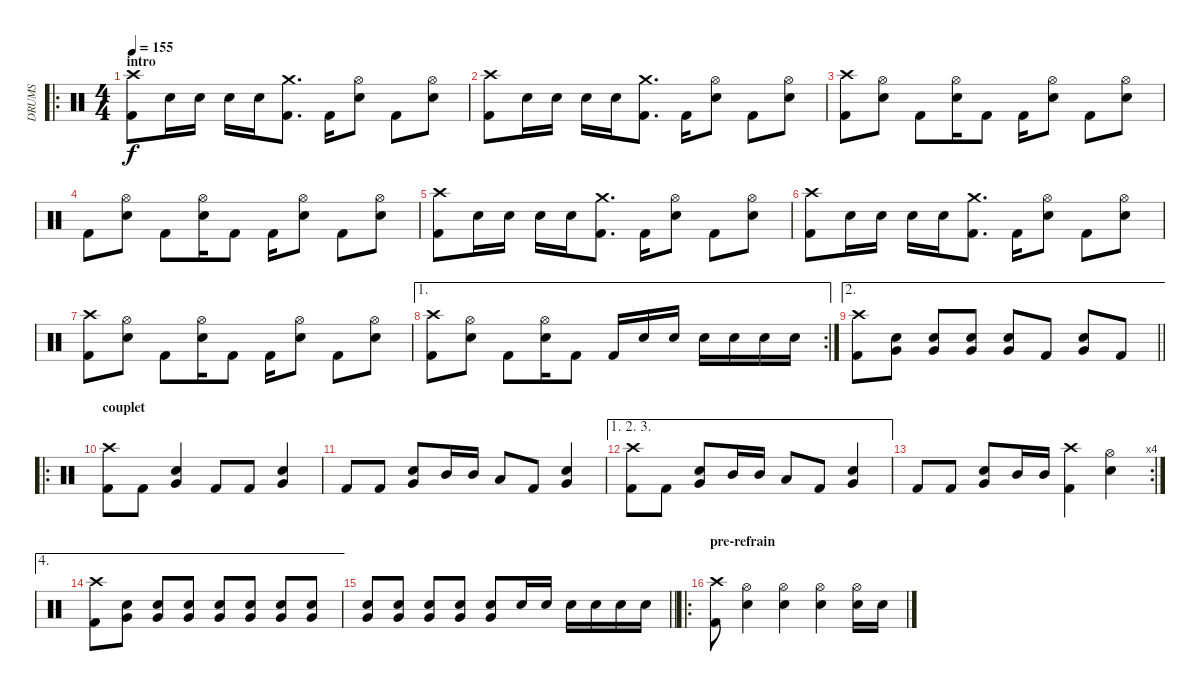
\track ("DRUMS" "DRUMS") {instrument percussion}
\staff {score}
\articulation defaults
\ro
\ts (4 4)
\section ("" "intro")
\tempo 155
\clef neutral
\ks c
("Crash high (hit)" "Kick (hit) 2").8{dy f} "Electric Snare (hit)".16 "Electric Snare (hit)".16 "Electric Snare (hit)".16 "Electric Snare (hit)".16 ("Crash medium (hit)" "Kick (hit) 2").8{d} "Kick (hit) 2".16 ("Hi-Hat (open)" "Electric Snare (hit)").8 "Kick (hit) 2".8 ("Hi-Hat (open)" "Electric Snare (hit)").8 |
("Crash high (hit)" "Kick (hit) 2").8 "Electric Snare (hit)".16 "Electric Snare (hit)".16 "Electric Snare (hit)".16 "Electric Snare (hit)".16 ("Crash medium (hit)" "Kick (hit) 2").8{d} "Kick (hit) 2".16 ("Hi-Hat (open)" "Electric Snare (hit)").8 "Kick (hit) 2".8 ("Hi-Hat (open)" "Electric Snare (hit)").8 |
("Crash high (hit)" "Kick (hit) 2").8 ("Hi-Hat (open)" "Electric Snare (hit)").8 "Kick (hit) 2".8 ("Hi-Hat (open)" "Electric Snare (hit)").16 "Kick (hit) 2".8 "Kick (hit) 2".16 ("Hi-Hat (open)" "Electric Snare (hit)").8 "Kick (hit) 2".8 ("Hi-Hat (open)" "Electric Snare (hit)").8 |
"Kick (hit) 2".8 ("Hi-Hat (open)" "Electric Snare (hit)").8 "Kick (hit) 2".8 ("Hi-Hat (open)" "Electric Snare (hit)").16 "Kick (hit) 2".8 "Kick (hit) 2".16 ("Hi-Hat (open)" "Electric Snare (hit)").8 "Kick (hit) 2".8 ("Hi-Hat (open)" "Electric Snare (hit)").8 |
("Crash high (hit)" "Kick (hit) 2").8 "Electric Snare (hit)".16 "Electric Snare (hit)".16 "Electric Snare (hit)".16 "Electric Snare (hit)".16 ("Crash medium (hit)" "Kick (hit) 2").8{d} "Kick (hit) 2".16 ("Hi-Hat (open)" "Electric Snare (hit)").8 "Kick (hit) 2".8 ("Hi-Hat (open)" "Electric Snare (hit)").8 |
("Crash high (hit)" "Kick (hit) 2").8 "Electric Snare (hit)".16 "Electric Snare (hit)".16 "Electric Snare (hit)".16 "Electric Snare (hit)".16 ("Crash medium (hit)" "Kick (hit) 2").8{d} "Kick (hit) 2".16 ("Hi-Hat (open)" "Electric Snare (hit)").8 "Kick (hit) 2".8 ("Hi-Hat (open)" "Electric Snare (hit)").8 |
("Crash high (hit)" "Kick (hit) 2").8 ("Hi-Hat (open)" "Electric Snare (hit)").8 "Kick (hit) 2".8 ("Hi-Hat (open)" "Electric Snare (hit)").16 "Kick (hit) 2".8 "Kick (hit) 2".16 ("Hi-Hat (open)" "Electric Snare (hit)").8 "Kick (hit) 2".8 ("Hi-Hat (open)" "Electric Snare (hit)").8 |
\ae 1
\rc 2
("Crash high (hit)" "Kick (hit) 2").8 ("Hi-Hat (open)" "Electric Snare (hit)").8 "Kick (hit) 2".8 ("Hi-Hat (open)" "Electric Snare (hit)").16 "Kick (hit) 2".8 "Kick (hit) 2".16 "Electric Snare (hit)".16 "Electric Snare (hit)".16 "Electric Snare (hit)".16 "Electric Snare (hit)".16 "Electric Snare (hit)".16 "Electric Snare (hit)".16 |
\ae 2
\barLineRight lightlight
("Crash high (hit)" "Kick (hit) 2").8 ("Very Low Tom (hit)" "Electric Snare (hit)").8 ("Very Low Tom (hit)" "Electric Snare (hit)").8 ("Very Low Tom (hit)" "Electric Snare (hit)").8 ("Very Low Tom (hit)" "Electric Snare (hit)").8 "Kick (hit) 2".8 ("Very Low Tom (hit)" "Electric Snare (hit)").8 "Kick (hit) 2".8 |
\ro
\section ("" "couplet")
("Crash high (hit)" "Kick (hit) 2").8 "Kick (hit) 2".8 ("Very Low Tom (hit)" "Electric Snare (hit)").4 "Kick (hit) 2".8 "Kick (hit) 2".8 ("Very Low Tom (hit)" "Electric Snare (hit)").4 |
"Kick (hit) 2".8 "Kick (hit) 2".8 ("Very Low Tom (hit)" "Electric Snare (hit)").8 "Mid Tom (hit)".16 "Mid Tom (hit)".16 "Low Tom (hit)".8 "Kick (hit) 2".8 ("Electric Snare (hit)" "Very Low Tom (hit)").4 |
\ae (1 2 3)
("Crash high (hit)" "Kick (hit) 2").8 "Kick (hit) 2".8 ("Very Low Tom (hit)" "Electric Snare (hit)").8 "Mid Tom (hit)".16 "Mid Tom (hit)".16 "Low Tom (hit)".8 "Kick (hit) 2".8 ("Very Low Tom (hit)" "Electric Snare (hit)").4 |
\rc 4 "Kick (hit) 2".8 "Kick (hit) 2".8
("Very Low Tom (hit)" "Electric Snare (hit)").8 "Mid Tom (hit)".16 "Mid Tom (hit)".16 ("Crash high (hit)" "Kick (hit) 2").4 ("Hi-Hat (open)" "Electric Snare (hit)").4 |
\ae 4
("Crash high (hit)" "Kick (hit) 2").8 ("Very Low Tom (hit)" "Electric Snare (hit)").8 ("Very Low Tom (hit)" "Electric Snare (hit)").8 ("Very Low Tom (hit)" "Electric Snare (hit)").8 ("Very Low Tom (hit)" "Electric Snare (hit)").8 ("Very Low Tom (hit)" "Electric Snare (hit)").8 ("Very Low Tom (hit)" "Electric Snare (hit)").8 ("Very Low Tom (hit)" "Electric Snare (hit)").8 |
\barLineRight lightlight
("Very Low Tom (hit)" "Electric Snare (hit)").8 ("Very Low Tom (hit)" "Electric Snare (hit)").8 ("Very Low Tom (hit)" "Electric Snare (hit)").8 ("Very Low Tom (hit)" "Electric Snare (hit)").8 ("Very Low Tom (hit)" "Electric Snare (hit)").8 "Electric Snare (hit)".16 "Electric Snare (hit)".16 "Electric Snare (hit)".16 "Electric Snare (hit)".16 "Electric Snare (hit)".16 "Electric Snare (hit)".16 |
\ro
\section ("" "pre-refrain")
("Crash high (hit)" "Kick (hit) 2").8 ("Hi-Hat (open)" "Electric Snare (hit)").4 ("Hi-Hat (open)" "Electric Snare (hit)").4 ("Hi-Hat (open)" "Electric Snare (hit)").4 ("Hi-Hat (open)" "Electric Snare (hit)").16 "Electric Snare (hit)".16
